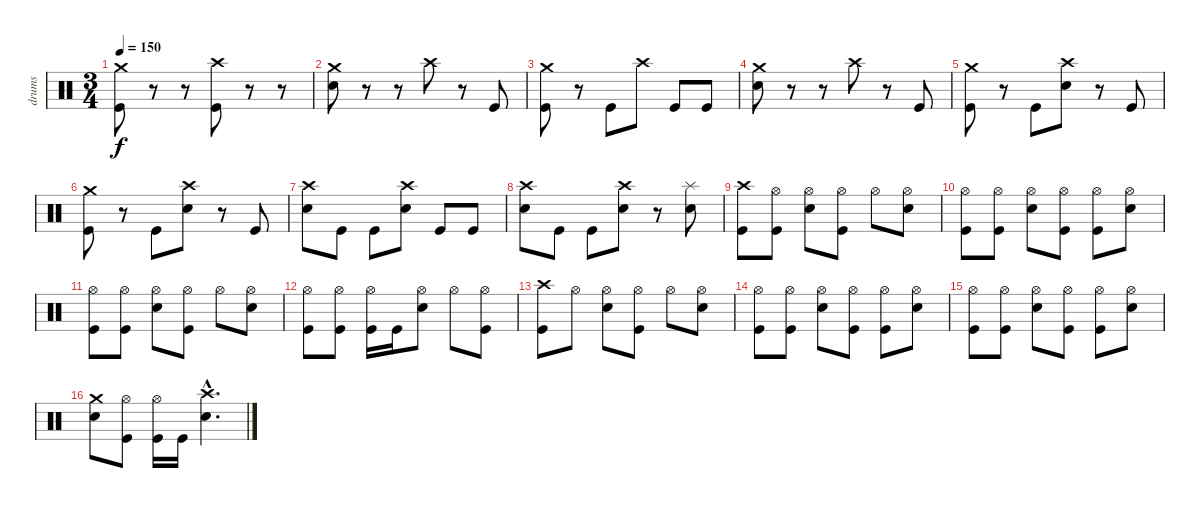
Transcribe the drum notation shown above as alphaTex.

\track ("drums" "drums") {instrument percussion}
\staff {score}
\articulation defaults
\ts (3 4)
\tempo 150
\clef neutral
\ks c
("Crash medium (hit)" "Kick (hit)").8{dy f} r.8 r.8 ("Crash high (hit)" "Kick (hit)").8 r.8 r.8 |
("Crash medium (hit)" "Snare (hit) 2").8 r.8 r.8 "Crash high (hit)".8 r.8 "Kick (hit)".8 |
("Crash medium (hit)" "Kick (hit)").8 r.8 "Kick (hit)".8 "Crash high (hit)".8 "Kick (hit)".8 "Kick (hit)".8 |
("Crash medium (hit)" "Snare (hit) 2").8 r.8 r.8 "Crash high (hit)".8 r.8 "Kick (hit)".8 |
("Crash medium (hit)" "Kick (hit)").8 r.8 "Kick (hit)".8 ("Crash high (hit)" "Snare (hit) 2").8 r.8 "Kick (hit)".8 |
("Crash medium (hit)" "Kick (hit)").8 r.8 "Kick (hit)".8 ("Crash high (hit)" "Snare (hit) 2").8 r.8 "Kick (hit)".8 |
("Crash high (hit)" "Snare (hit) 2").8 "Kick (hit)".8 "Kick (hit)".8 ("Crash high (hit)" "Snare (hit) 2").8 "Kick (hit)".8 "Kick (hit)".8 |
("Crash high (hit)" "Snare (hit) 2").8 "Kick (hit)".8 "Kick (hit)".8 ("Crash high (hit)" "Snare (hit) 2").8 r.8 ("Splash (hit)" "Snare (hit) 2").8 |
("Crash high (hit)" "Kick (hit)").8 ("Hi-Hat (open)" "Kick (hit)").8 ("Hi-Hat (open)" "Snare (hit) 2").8 ("Hi-Hat (open)" "Kick (hit)").8 "Hi-Hat (open)".8 ("Hi-Hat (open)" "Snare (hit) 2").8 |
("Hi-Hat (open)" "Kick (hit)").8 ("Hi-Hat (open)" "Kick (hit)").8 ("Hi-Hat (open)" "Snare (hit) 2").8 ("Hi-Hat (open)" "Kick (hit)").8 ("Hi-Hat (open)" "Kick (hit)").8 ("Hi-Hat (open)" "Snare (hit) 2").8 |
("Hi-Hat (open)" "Kick (hit)").8 ("Hi-Hat (open)" "Kick (hit)").8 ("Hi-Hat (open)" "Snare (hit) 2").8 ("Hi-Hat (open)" "Kick (hit)").8 "Hi-Hat (open)".8 ("Hi-Hat (open)" "Snare (hit) 2").8 |
("Hi-Hat (open)" "Kick (hit)").8 ("Hi-Hat (open)" "Kick (hit)").8 ("Hi-Hat (open)" "Kick (hit)").16 "Kick (hit)".16 ("Hi-Hat (open)" "Snare (hit) 2").8 "Hi-Hat (open)".8 ("Hi-Hat (open)" "Kick (hit)").8 |
("Crash high (hit)" "Kick (hit)").8 "Hi-Hat (open)".8 ("Hi-Hat (open)" "Snare (hit) 2").8 ("Hi-Hat (open)" "Kick (hit)").8 "Hi-Hat (open)".8 ("Hi-Hat (open)" "Snare (hit) 2").8 |
("Hi-Hat (open)" "Kick (hit)").8 ("Hi-Hat (open)" "Kick (hit)").8 ("Hi-Hat (open)" "Snare (hit) 2").8 ("Hi-Hat (open)" "Kick (hit)").8 ("Hi-Hat (open)" "Kick (hit)").8 ("Hi-Hat (open)" "Snare (hit) 2").8 |
("Hi-Hat (open)" "Kick (hit)").8 ("Hi-Hat (open)" "Kick (hit)").8 ("Hi-Hat (open)" "Snare (hit) 2").8 ("Hi-Hat (open)" "Kick (hit)").8 ("Hi-Hat (open)" "Kick (hit)").8 ("Hi-Hat (open)" "Snare (hit) 2").8 |
("Crash medium (hit)" "Snare (hit) 2").8 ("Hi-Hat (open)" "Kick (hit)").8 ("Hi-Hat (open)" "Kick (hit)").16 "Kick (hit)".16 ("Crash high (hit)"{hac} "Snare (hit) 2"{hac}).4{d}
